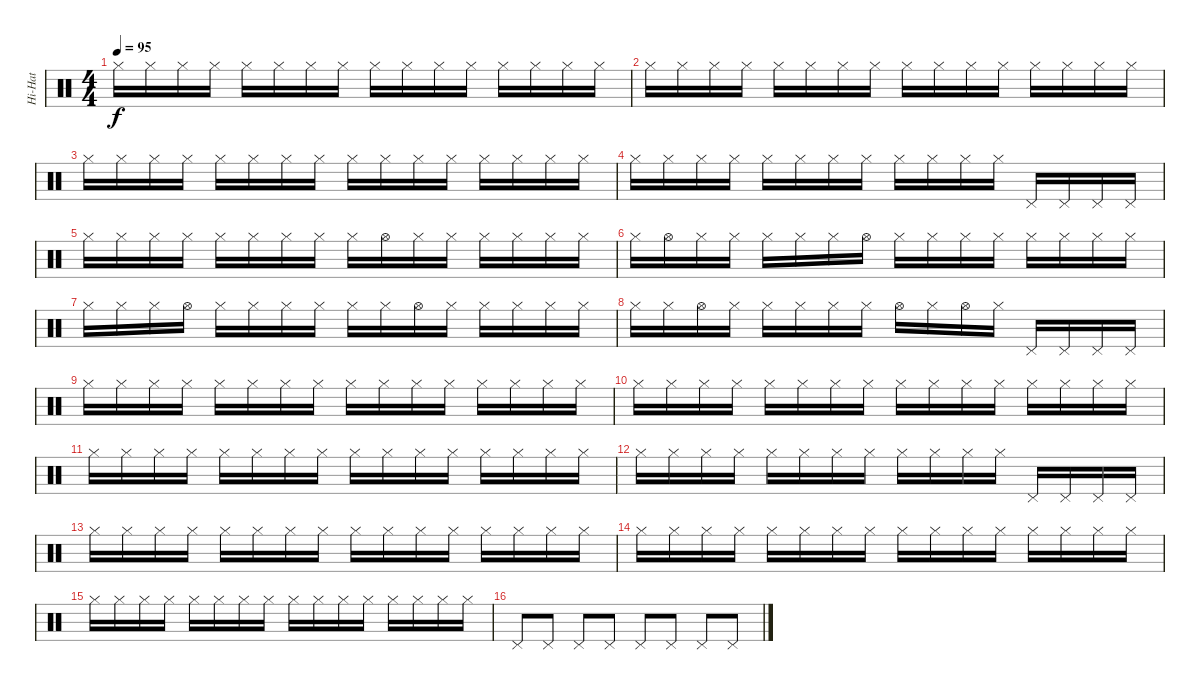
\track ("Hi-Hat" "Hi-Hat") {instrument percussion}
\staff {score}
\articulation defaults
\ts (4 4)
\tempo 95
\clef neutral
\ks c "Hi-Hat (closed)".16{dy f} "Hi-Hat (closed)".16 "Hi-Hat (closed)".16 "Hi-Hat (closed)".16 "Hi-Hat (closed)".16 "Hi-Hat (closed)".16 "Hi-Hat (closed)".16 "Hi-Hat (closed)".16 "Hi-Hat (closed)".16 "Hi-Hat (closed)".16 "Hi-Hat (closed)".16 "Hi-Hat (closed)".16 "Hi-Hat (closed)".16 "Hi-Hat (closed)".16 "Hi-Hat (closed)".16 "Hi-Hat (closed)".16
|
"Hi-Hat (closed)".16 "Hi-Hat (closed)".16 "Hi-Hat (closed)".16 "Hi-Hat (closed)".16 "Hi-Hat (closed)".16 "Hi-Hat (closed)".16 "Hi-Hat (closed)".16 "Hi-Hat (closed)".16 "Hi-Hat (closed)".16 "Hi-Hat (closed)".16 "Hi-Hat (closed)".16 "Hi-Hat (closed)".16 "Hi-Hat (closed)".16 "Hi-Hat (closed)".16 "Hi-Hat (closed)".16 "Hi-Hat (closed)".16 |
"Hi-Hat (closed)".16 "Hi-Hat (closed)".16 "Hi-Hat (closed)".16 "Hi-Hat (closed)".16 "Hi-Hat (closed)".16 "Hi-Hat (closed)".16 "Hi-Hat (closed)".16 "Hi-Hat (closed)".16 "Hi-Hat (closed)".16 "Hi-Hat (closed)".16 "Hi-Hat (closed)".16 "Hi-Hat (closed)".16 "Hi-Hat (closed)".16 "Hi-Hat (closed)".16 "Hi-Hat (closed)".16 "Hi-Hat (closed)".16 |
"Hi-Hat (closed)".16 "Hi-Hat (closed)".16 "Hi-Hat (closed)".16 "Hi-Hat (closed)".16 "Hi-Hat (closed)".16 "Hi-Hat (closed)".16 "Hi-Hat (closed)".16 "Hi-Hat (closed)".16 "Hi-Hat (closed)".16 "Hi-Hat (closed)".16 "Hi-Hat (closed)".16 "Hi-Hat (closed)".16 "Pedal Hi-Hat (hit)".16 "Pedal Hi-Hat (hit)"{x}.16 "Pedal Hi-Hat (hit)".16 "Pedal Hi-Hat (hit)"{x}.16 |
"Hi-Hat (closed)".16 "Hi-Hat (closed)".16 "Hi-Hat (closed)".16 "Hi-Hat (closed)".16 "Hi-Hat (closed)".16 "Hi-Hat (closed)".16 "Hi-Hat (closed)".16 "Hi-Hat (closed)".16 "Hi-Hat (closed)".16 "Hi-Hat (open)".16 "Hi-Hat (closed)".16 "Hi-Hat (closed)".16 "Hi-Hat (closed)".16 "Hi-Hat (closed)".16 "Hi-Hat (closed)".16 "Hi-Hat (closed)".16 |
"Hi-Hat (closed)".16 "Hi-Hat (open)".16 "Hi-Hat (closed)".16 "Hi-Hat (closed)".16 "Hi-Hat (closed)".16 "Hi-Hat (closed)".16 "Hi-Hat (closed)".16 "Hi-Hat (open)".16 "Hi-Hat (closed)".16 "Hi-Hat (closed)".16 "Hi-Hat (closed)".16 "Hi-Hat (closed)".16 "Hi-Hat (closed)".16 "Hi-Hat (closed)".16 "Hi-Hat (closed)".16 "Hi-Hat (closed)".16 |
"Hi-Hat (closed)".16 "Hi-Hat (closed)".16 "Hi-Hat (closed)".16 "Hi-Hat (open)".16 "Hi-Hat (closed)".16 "Hi-Hat (closed)".16 "Hi-Hat (closed)".16 "Hi-Hat (closed)".16 "Hi-Hat (closed)".16 "Hi-Hat (closed)".16 "Hi-Hat (open)".16 "Hi-Hat (closed)".16 "Hi-Hat (closed)".16 "Hi-Hat (closed)".16 "Hi-Hat (closed)".16 "Hi-Hat (closed)".16 |
"Hi-Hat (closed)".16 "Hi-Hat (closed)".16 "Hi-Hat (open)".16 "Hi-Hat (closed)".16 "Hi-Hat (closed)".16 "Hi-Hat (closed)".16 "Hi-Hat (closed)".16 "Hi-Hat (closed)".16 "Hi-Hat (open)".16 "Hi-Hat (closed)".16 "Hi-Hat (open)".16 "Hi-Hat (closed)".16 "Pedal Hi-Hat (hit)".16 "Pedal Hi-Hat (hit)"{x}.16 "Pedal Hi-Hat (hit)".16 "Pedal Hi-Hat (hit)"{x}.16 |
"Hi-Hat (closed)".16 "Hi-Hat (closed)".16 "Hi-Hat (closed)".16 "Hi-Hat (closed)".16 "Hi-Hat (closed)".16 "Hi-Hat (closed)".16 "Hi-Hat (closed)".16 "Hi-Hat (closed)".16 "Hi-Hat (closed)".16 "Hi-Hat (closed)".16 "Hi-Hat (closed)".16 "Hi-Hat (closed)".16 "Hi-Hat (closed)".16 "Hi-Hat (closed)".16 "Hi-Hat (closed)".16 "Hi-Hat (closed)".16 |
"Hi-Hat (closed)".16 "Hi-Hat (closed)".16 "Hi-Hat (closed)".16 "Hi-Hat (closed)".16 "Hi-Hat (closed)".16 "Hi-Hat (closed)".16 "Hi-Hat (closed)".16 "Hi-Hat (closed)".16 "Hi-Hat (closed)".16 "Hi-Hat (closed)".16 "Hi-Hat (closed)".16 "Hi-Hat (closed)".16 "Hi-Hat (closed)".16 "Hi-Hat (closed)".16 "Hi-Hat (closed)".16 "Hi-Hat (closed)".16 |
"Hi-Hat (closed)".16 "Hi-Hat (closed)".16 "Hi-Hat (closed)".16 "Hi-Hat (closed)".16 "Hi-Hat (closed)".16 "Hi-Hat (closed)".16 "Hi-Hat (closed)".16 "Hi-Hat (closed)".16 "Hi-Hat (closed)".16 "Hi-Hat (closed)".16 "Hi-Hat (closed)".16 "Hi-Hat (closed)".16 "Hi-Hat (closed)".16 "Hi-Hat (closed)".16 "Hi-Hat (closed)".16 "Hi-Hat (closed)".16 |
"Hi-Hat (closed)".16 "Hi-Hat (closed)".16 "Hi-Hat (closed)".16 "Hi-Hat (closed)".16 "Hi-Hat (closed)".16 "Hi-Hat (closed)".16 "Hi-Hat (closed)".16 "Hi-Hat (closed)".16 "Hi-Hat (closed)".16 "Hi-Hat (closed)".16 "Hi-Hat (closed)".16 "Hi-Hat (closed)".16 "Pedal Hi-Hat (hit)".16 "Pedal Hi-Hat (hit)"{x}.16 "Pedal Hi-Hat (hit)".16 "Pedal Hi-Hat (hit)"{x}.16 |
"Hi-Hat (closed)".16 "Hi-Hat (closed)".16 "Hi-Hat (closed)".16 "Hi-Hat (closed)".16 "Hi-Hat (closed)".16 "Hi-Hat (closed)".16 "Hi-Hat (closed)".16 "Hi-Hat (closed)".16 "Hi-Hat (closed)".16 "Hi-Hat (closed)".16 "Hi-Hat (closed)".16 "Hi-Hat (closed)".16 "Hi-Hat (closed)".16 "Hi-Hat (closed)".16 "Hi-Hat (closed)".16 "Hi-Hat (closed)".16 |
"Hi-Hat (closed)".16 "Hi-Hat (closed)".16 "Hi-Hat (closed)".16 "Hi-Hat (closed)".16 "Hi-Hat (closed)".16 "Hi-Hat (closed)".16 "Hi-Hat (closed)".16 "Hi-Hat (closed)".16 "Hi-Hat (closed)".16 "Hi-Hat (closed)".16 "Hi-Hat (closed)".16 "Hi-Hat (closed)".16 "Hi-Hat (closed)".16 "Hi-Hat (closed)".16 "Hi-Hat (closed)".16 "Hi-Hat (closed)".16 |
"Hi-Hat (closed)".16 "Hi-Hat (closed)".16 "Hi-Hat (closed)".16 "Hi-Hat (closed)".16 "Hi-Hat (closed)".16 "Hi-Hat (closed)".16 "Hi-Hat (closed)".16 "Hi-Hat (closed)".16 "Hi-Hat (closed)".16 "Hi-Hat (closed)".16 "Hi-Hat (closed)".16 "Hi-Hat (closed)".16 "Hi-Hat (closed)".16 "Hi-Hat (closed)".16 "Hi-Hat (closed)".16 "Hi-Hat (closed)".16 |
"Pedal Hi-Hat (hit)".8 "Pedal Hi-Hat (hit)".8 "Pedal Hi-Hat (hit)".8 "Pedal Hi-Hat (hit)".8 "Pedal Hi-Hat (hit)".8 "Pedal Hi-Hat (hit)".8 "Pedal Hi-Hat (hit)".8 "Pedal Hi-Hat (hit)".8
